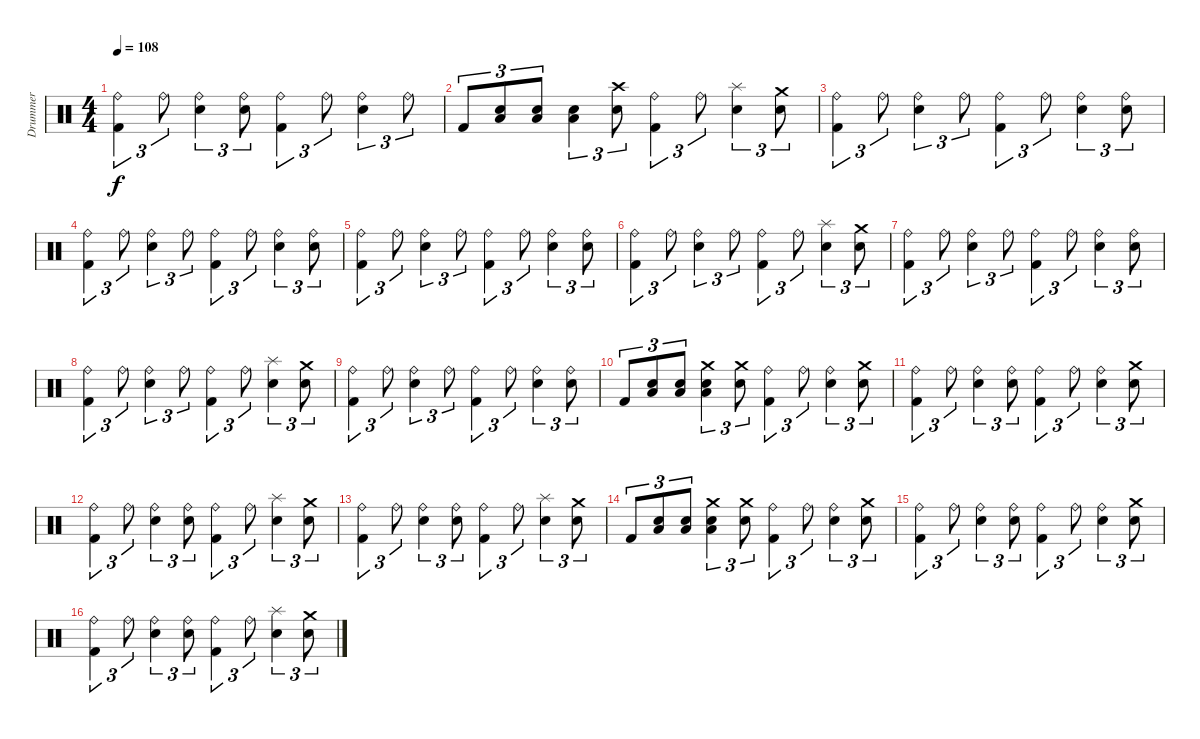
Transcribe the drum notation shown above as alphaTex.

\track ("Drummer" "Drummer") {instrument percussion}
\staff {score}
\articulation defaults
\ts (4 4)
\tempo 108
\clef neutral
\ks c
("Ride (bell)" "Kick (hit) 2").4{tu (3 2) dy f} "Ride (bell)".8{tu (3 2)} ("Ride (bell)" "Electric Snare (hit)").4{tu (3 2)} ("Ride (bell)" "Electric Snare (hit)").8{tu (3 2)} ("Ride (bell)" "Kick (hit) 2").4{tu (3 2)} "Ride (bell)".8{tu (3 2)} ("Ride (bell)" "Electric Snare (hit)").4{tu (3 2)} "Ride (bell)".8{tu (3 2)} |
"Kick (hit) 2".8{tu (3 2) volume 14} ("Low Tom (hit)" "Electric Snare (hit)").8{tu (3 2)} ("Low Tom (hit)" "Electric Snare (hit)").8{tu (3 2)} ("Low Floor Tom (hit)" "Electric Snare (hit)").4{tu (3 2)} ("Crash high (hit)" "Electric Snare (hit)").8{tu (3 2)} ("Ride (bell)" "Kick (hit) 2").4{tu (3 2)} "Ride (bell)".8{tu (3 2)} ("Splash (hit)" "Electric Snare (hit)").4{tu (3 2)} ("Crash medium (hit)" "Electric Snare (hit)").8{tu (3 2)} |
("Ride (bell)" "Kick (hit) 2").4{tu (3 2)} "Ride (bell)".8{tu (3 2)} ("Ride (bell)" "Electric Snare (hit)").4{tu (3 2)} "Ride (bell)".8{tu (3 2)} ("Ride (bell)" "Kick (hit) 2").4{tu (3 2)} "Ride (bell)".8{tu (3 2)} ("Ride (bell)" "Electric Snare (hit)").4{tu (3 2)} ("Ride (bell)" "Electric Snare (hit)").8{tu (3 2)} |
("Ride (bell)" "Kick (hit) 2").4{tu (3 2)} "Ride (bell)".8{tu (3 2)} ("Ride (bell)" "Electric Snare (hit)").4{tu (3 2)} "Ride (bell)".8{tu (3 2)} ("Ride (bell)" "Kick (hit) 2").4{tu (3 2)} "Ride (bell)".8{tu (3 2)} ("Ride (bell)" "Electric Snare (hit)").4{tu (3 2)} ("Ride (bell)" "Electric Snare (hit)").8{tu (3 2)} |
("Ride (bell)" "Kick (hit) 2").4{tu (3 2) volume 11} "Ride (bell)".8{tu (3 2)} ("Ride (bell)" "Electric Snare (hit)").4{tu (3 2)} "Ride (bell)".8{tu (3 2)} ("Ride (bell)" "Kick (hit) 2").4{tu (3 2)} "Ride (bell)".8{tu (3 2)} ("Ride (bell)" "Electric Snare (hit)").4{tu (3 2)} ("Ride (bell)" "Electric Snare (hit)").8{tu (3 2)} |
("Ride (bell)" "Kick (hit) 2").4{tu (3 2)} "Ride (bell)".8{tu (3 2)} ("Ride (bell)" "Electric Snare (hit)").4{tu (3 2)} "Ride (bell)".8{tu (3 2)} ("Ride (bell)" "Kick (hit) 2").4{tu (3 2)} "Ride (bell)".8{tu (3 2)} ("Splash (hit)" "Electric Snare (hit)").4{tu (3 2)} ("Crash medium (hit)" "Electric Snare (hit)").8{tu (3 2)} |
("Ride (bell)" "Kick (hit) 2").4{tu (3 2)} "Ride (bell)".8{tu (3 2)} ("Ride (bell)" "Electric Snare (hit)").4{tu (3 2)} "Ride (bell)".8{tu (3 2)} ("Ride (bell)" "Kick (hit) 2").4{tu (3 2)} "Ride (bell)".8{tu (3 2)} ("Ride (bell)" "Electric Snare (hit)").4{tu (3 2)} ("Ride (bell)" "Electric Snare (hit)").8{tu (3 2)} |
("Ride (bell)" "Kick (hit) 2").4{tu (3 2) volume 9} "Ride (bell)".8{tu (3 2)} ("Ride (bell)" "Electric Snare (hit)").4{tu (3 2)} "Ride (bell)".8{tu (3 2)} ("Ride (bell)" "Kick (hit) 2").4{tu (3 2)} "Ride (bell)".8{tu (3 2)} ("Splash (hit)" "Electric Snare (hit)").4{tu (3 2)} ("Crash medium (hit)" "Electric Snare (hit)").8{tu (3 2)} |
("Ride (bell)" "Kick (hit) 2").4{tu (3 2)} "Ride (bell)".8{tu (3 2)} ("Ride (bell)" "Electric Snare (hit)").4{tu (3 2)} "Ride (bell)".8{tu (3 2)} ("Ride (bell)" "Kick (hit) 2").4{tu (3 2)} "Ride (bell)".8{tu (3 2)} ("Ride (bell)" "Electric Snare (hit)").4{tu (3 2)} ("Ride (bell)" "Electric Snare (hit)").8{tu (3 2)} |
"Kick (hit) 2".8{tu (3 2)} ("Low Floor Tom (hit)" "Electric Snare (hit)").8{tu (3 2)} ("Low Floor Tom (hit)" "Electric Snare (hit)").8{tu (3 2)} ("Crash medium (hit)" "Low Floor Tom (hit)" "Electric Snare (hit)").4{tu (3 2)} ("Crash medium (hit)" "Electric Snare (hit)").8{tu (3 2)} ("Ride (bell)" "Kick (hit) 2").4{tu (3 2)} "Ride (bell)".8{tu (3 2)} ("Ride (bell)" "Electric Snare (hit)").4{tu (3 2)} ("Crash medium (hit)" "Electric Snare (hit)").8{tu (3 2)} |
("Ride (bell)" "Kick (hit) 2").4{tu (3 2) volume 7} "Ride (bell)".8{tu (3 2)} ("Ride (bell)" "Electric Snare (hit)").4{tu (3 2)} ("Ride (bell)" "Electric Snare (hit)").8{tu (3 2)} ("Ride (bell)" "Kick (hit) 2").4{tu (3 2)} "Ride (bell)".8{tu (3 2)} ("Ride (bell)" "Electric Snare (hit)").4{tu (3 2)} ("Crash medium (hit)" "Electric Snare (hit)").8{tu (3 2)} |
("Ride (bell)" "Kick (hit) 2").4{tu (3 2)} "Ride (bell)".8{tu (3 2)} ("Ride (bell)" "Electric Snare (hit)").4{tu (3 2)} ("Ride (bell)" "Electric Snare (hit)").8{tu (3 2)} ("Ride (bell)" "Kick (hit) 2").4{tu (3 2)} "Ride (bell)".8{tu (3 2)} ("Splash (hit)" "Electric Snare (hit)").4{tu (3 2)} ("Crash medium (hit)" "Electric Snare (hit)").8{tu (3 2)} |
("Ride (bell)" "Kick (hit) 2").4{tu (3 2)} "Ride (bell)".8{tu (3 2)} ("Ride (bell)" "Electric Snare (hit)").4{tu (3 2)} ("Ride (bell)" "Electric Snare (hit)").8{tu (3 2)} ("Ride (bell)" "Kick (hit) 2").4{tu (3 2)} "Ride (bell)".8{tu (3 2)} ("Splash (hit)" "Electric Snare (hit)").4{tu (3 2)} ("Crash medium (hit)" "Electric Snare (hit)").8{tu (3 2)} |
"Kick (hit) 2".8{tu (3 2) volume 5} ("Low Floor Tom (hit)" "Electric Snare (hit)").8{tu (3 2)} ("Low Floor Tom (hit)" "Electric Snare (hit)").8{tu (3 2)} ("Crash medium (hit)" "Low Floor Tom (hit)" "Electric Snare (hit)").4{tu (3 2)} ("Crash medium (hit)" "Electric Snare (hit)").8{tu (3 2)} ("Ride (bell)" "Kick (hit) 2").4{tu (3 2)} "Ride (bell)".8{tu (3 2)} ("Ride (bell)" "Electric Snare (hit)").4{tu (3 2)} ("Crash medium (hit)" "Electric Snare (hit)").8{tu (3 2)} |
("Ride (bell)" "Kick (hit) 2").4{tu (3 2)} "Ride (bell)".8{tu (3 2)} ("Ride (bell)" "Electric Snare (hit)").4{tu (3 2)} ("Ride (bell)" "Electric Snare (hit)").8{tu (3 2)} ("Ride (bell)" "Kick (hit) 2").4{tu (3 2)} "Ride (bell)".8{tu (3 2)} ("Ride (bell)" "Electric Snare (hit)").4{tu (3 2)} ("Crash medium (hit)" "Electric Snare (hit)").8{tu (3 2)} |
("Ride (bell)" "Kick (hit) 2").4{tu (3 2) volume 0} "Ride (bell)".8{tu (3 2)} ("Ride (bell)" "Electric Snare (hit)").4{tu (3 2)} ("Ride (bell)" "Electric Snare (hit)").8{tu (3 2)} ("Ride (bell)" "Kick (hit) 2").4{tu (3 2)} "Ride (bell)".8{tu (3 2)} ("Splash (hit)" "Electric Snare (hit)").4{tu (3 2)} ("Crash medium (hit)" "Electric Snare (hit)").8{tu (3 2)}
